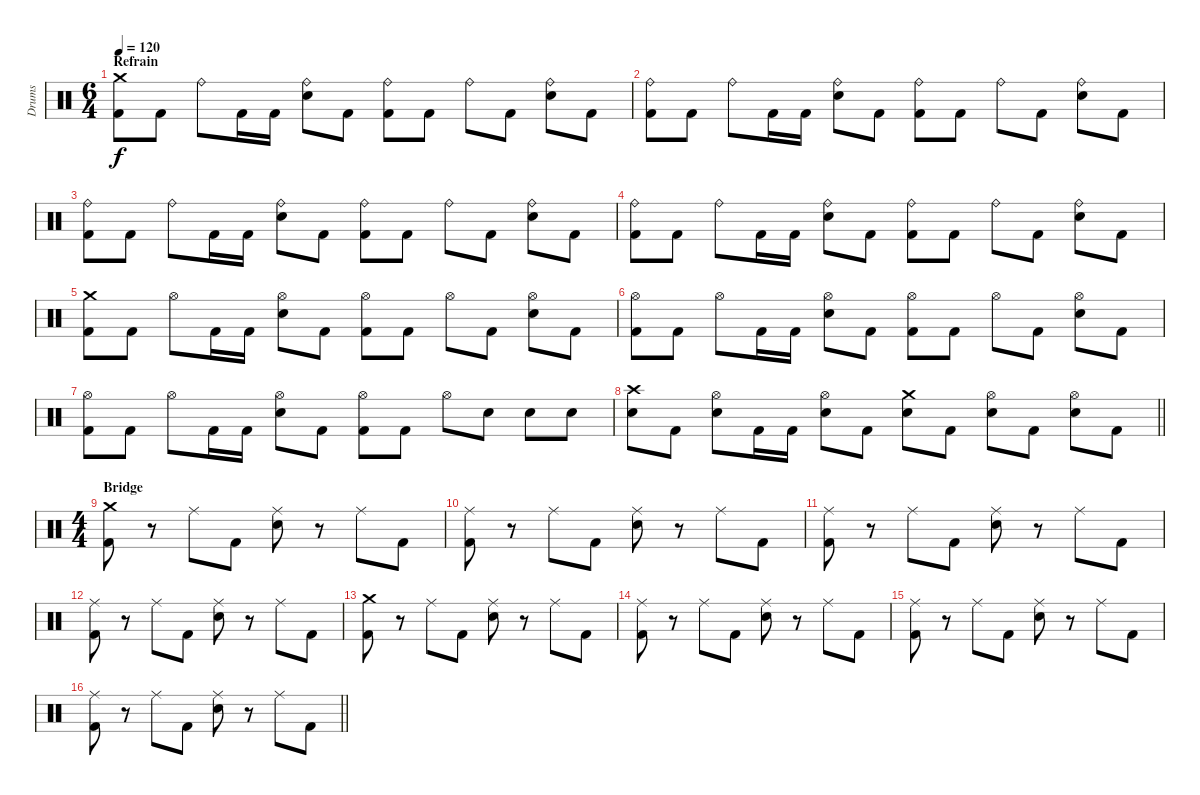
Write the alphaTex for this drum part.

\track ("Drums" "Drums") {instrument percussion}
\staff {score}
\articulation defaults
\ts (6 4)
\section ("" "Refrain")
\tempo 120
\clef neutral
\ks c
("Crash medium (hit)" "Kick (hit) 2").8{dy f} "Kick (hit) 2".8 "Ride (bell)".8 "Kick (hit) 2".16 "Kick (hit) 2".16 ("Ride (bell)" "Snare (hit) 2").8 "Kick (hit) 2".8 ("Ride (bell)" "Kick (hit) 2").8 "Kick (hit) 2".8 "Ride (bell)".8 "Kick (hit) 2".8 ("Ride (bell)" "Snare (hit) 2").8 "Kick (hit) 2".8 |
("Ride (bell)" "Kick (hit) 2").8 "Kick (hit) 2".8 "Ride (bell)".8 "Kick (hit) 2".16 "Kick (hit) 2".16 ("Ride (bell)" "Snare (hit) 2").8 "Kick (hit) 2".8 ("Ride (bell)" "Kick (hit) 2").8 "Kick (hit) 2".8 "Ride (bell)".8 "Kick (hit) 2".8 ("Ride (bell)" "Snare (hit) 2").8 "Kick (hit) 2".8 |
("Ride (bell)" "Kick (hit) 2").8 "Kick (hit) 2".8 "Ride (bell)".8 "Kick (hit) 2".16 "Kick (hit) 2".16 ("Ride (bell)" "Snare (hit) 2").8 "Kick (hit) 2".8 ("Ride (bell)" "Kick (hit) 2").8 "Kick (hit) 2".8 "Ride (bell)".8 "Kick (hit) 2".8 ("Ride (bell)" "Snare (hit) 2").8 "Kick (hit) 2".8 |
("Ride (bell)" "Kick (hit) 2").8 "Kick (hit) 2".8 "Ride (bell)".8 "Kick (hit) 2".16 "Kick (hit) 2".16 ("Ride (bell)" "Snare (hit) 2").8 "Kick (hit) 2".8 ("Ride (bell)" "Kick (hit) 2").8 "Kick (hit) 2".8 "Ride (bell)".8 "Kick (hit) 2".8 ("Ride (bell)" "Snare (hit) 2").8 "Kick (hit) 2".8 |
("Crash medium (hit)" "Kick (hit) 2").8 "Kick (hit) 2".8 "Hi-Hat (open)".8 "Kick (hit) 2".16 "Kick (hit) 2".16 ("Hi-Hat (open)" "Snare (hit) 2").8 "Kick (hit) 2".8 ("Hi-Hat (open)" "Kick (hit) 2").8 "Kick (hit) 2".8 "Hi-Hat (open)".8 "Kick (hit) 2".8 ("Hi-Hat (open)" "Snare (hit) 2").8 "Kick (hit) 2".8 |
("Hi-Hat (open)" "Kick (hit) 2").8 "Kick (hit) 2".8 "Hi-Hat (open)".8 "Kick (hit) 2".16 "Kick (hit) 2".16 ("Hi-Hat (open)" "Snare (hit) 2").8 "Kick (hit) 2".8 ("Hi-Hat (open)" "Kick (hit) 2").8 "Kick (hit) 2".8 "Hi-Hat (open)".8 "Kick (hit) 2".8 ("Hi-Hat (open)" "Snare (hit) 2").8 "Kick (hit) 2".8 |
("Hi-Hat (open)" "Kick (hit) 2").8 "Kick (hit) 2".8 "Hi-Hat (open)".8 "Kick (hit) 2".16 "Kick (hit) 2".16 ("Hi-Hat (open)" "Snare (hit) 2").8 "Kick (hit) 2".8 ("Hi-Hat (open)" "Kick (hit) 2").8 "Kick (hit) 2".8 "Hi-Hat (open)".8 "Snare (hit) 2".8 "Snare (hit) 2".8 "Snare (hit) 2".8 |
\barLineRight lightlight
("Crash high (hit)" "Snare (hit) 2").8 "Kick (hit) 2".8 ("Hi-Hat (open)" "Snare (hit) 2").8 "Kick (hit) 2".16 "Kick (hit) 2".16 ("Hi-Hat (open)" "Snare (hit) 2").8 "Kick (hit) 2".8 ("Crash medium (hit)" "Snare (hit) 2").8 "Kick (hit) 2".8 ("Hi-Hat (open)" "Snare (hit) 2").8 "Kick (hit) 2".8 ("Hi-Hat (open)" "Snare (hit) 2").8 "Kick (hit) 2".8 |
\ts (4 4)
\section ("" "Bridge")
("Crash medium (hit)" "Kick (hit) 2").8 r.8 "Ride (middle)".8 "Kick (hit) 2".8 ("Ride (middle)" "Snare (hit) 2").8 r.8 "Ride (middle)".8 "Kick (hit) 2".8 |
("Ride (middle)" "Kick (hit) 2").8 r.8 "Ride (middle)".8 "Kick (hit) 2".8 ("Ride (middle)" "Snare (hit) 2").8 r.8 "Ride (middle)".8 "Kick (hit) 2".8 |
("Ride (middle)" "Kick (hit) 2").8 r.8 "Ride (middle)".8 "Kick (hit) 2".8 ("Ride (middle)" "Snare (hit) 2").8 r.8 "Ride (middle)".8 "Kick (hit) 2".8 |
("Ride (middle)" "Kick (hit) 2").8 r.8 "Ride (middle)".8 "Kick (hit) 2".8 ("Ride (middle)" "Snare (hit) 2").8 r.8 "Ride (middle)".8 "Kick (hit) 2".8 |
("Crash medium (hit)" "Kick (hit) 2").8 r.8 "Ride (middle)".8 "Kick (hit) 2".8 ("Ride (middle)" "Snare (hit) 2").8 r.8 "Ride (middle)".8 "Kick (hit) 2".8 |
("Ride (middle)" "Kick (hit) 2").8 r.8 "Ride (middle)".8 "Kick (hit) 2".8 ("Ride (middle)" "Snare (hit) 2").8 r.8 "Ride (middle)".8 "Kick (hit) 2".8 |
("Ride (middle)" "Kick (hit) 2").8 r.8 "Ride (middle)".8 "Kick (hit) 2".8 ("Ride (middle)" "Snare (hit) 2").8 r.8 "Ride (middle)".8 "Kick (hit) 2".8 |
\barLineRight lightlight
("Ride (middle)" "Kick (hit) 2").8 r.8 "Ride (middle)".8 "Kick (hit) 2".8 ("Ride (middle)" "Snare (hit) 2").8 r.8 "Ride (middle)".8 "Kick (hit) 2".8
